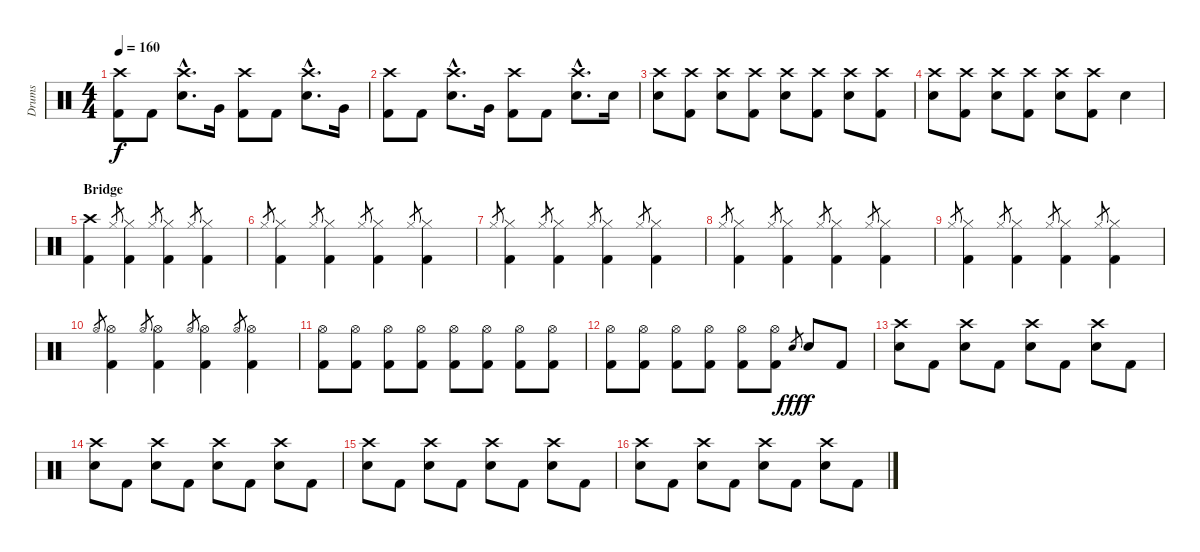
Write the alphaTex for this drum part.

\track ("Drums" "Drums") {instrument percussion}
\staff {score}
\articulation defaults
\ts (4 4)
\tempo 160
\clef neutral
\ks c
("Crash high (hit)" "Kick (hit) 2").8{dy f} "Kick (hit) 2".8 ("Crash high (hit)"{hac} "Electric Snare (hit)"{hac}).8{d} "Very Low Tom (hit)".16 ("Crash high (hit)" "Kick (hit) 2").8 "Kick (hit) 2".8 ("Crash high (hit)"{hac} "Electric Snare (hit)"{hac}).8{d} "Very Low Tom (hit)".16 |
("Crash high (hit)" "Kick (hit) 2").8 "Kick (hit) 2".8 ("Crash high (hit)"{hac} "Electric Snare (hit)"{hac}).8{d} "Very Low Tom (hit)".16 ("Crash high (hit)" "Kick (hit) 2").8 "Kick (hit) 2".8 ("Crash high (hit)"{hac} "Electric Snare (hit)"{hac}).8{d} "Electric Snare (hit)".16 |
("Crash high (hit)" "Electric Snare (hit)").8 ("Crash high (hit)" "Kick (hit) 2").8 ("Crash high (hit)" "Electric Snare (hit)").8 ("Crash high (hit)" "Kick (hit) 2").8 ("Crash high (hit)" "Electric Snare (hit)").8 ("Crash high (hit)" "Kick (hit) 2").8 ("Crash high (hit)" "Electric Snare (hit)").8 ("Crash high (hit)" "Kick (hit) 2").8 |
("Crash high (hit)" "Electric Snare (hit)").8 ("Crash high (hit)" "Kick (hit) 2").8 ("Crash high (hit)" "Electric Snare (hit)").8 ("Crash high (hit)" "Kick (hit) 2").8 ("Crash high (hit)" "Electric Snare (hit)").8 ("Crash high (hit)" "Kick (hit) 2").8 "Electric Snare (hit)".4 |
\section ("" "Bridge")
("Crash high (hit)" "Kick (hit) 2").4 "Hi-Hat (closed)".8{gr} ("Hi-Hat (closed)" "Kick (hit) 2").4 "Hi-Hat (closed)".8{gr} ("Hi-Hat (closed)" "Kick (hit) 2").4 "Hi-Hat (closed)".8{gr} ("Hi-Hat (closed)" "Kick (hit) 2").4 |
"Hi-Hat (closed)".8{gr} ("Hi-Hat (closed)" "Kick (hit) 2").4 "Hi-Hat (closed)".8{gr} ("Hi-Hat (closed)" "Kick (hit) 2").4 "Hi-Hat (closed)".8{gr} ("Hi-Hat (closed)" "Kick (hit) 2").4 "Hi-Hat (closed)".8{gr} ("Hi-Hat (closed)" "Kick (hit) 2").4 |
"Hi-Hat (closed)".8{gr} ("Hi-Hat (closed)" "Kick (hit) 2").4 "Hi-Hat (closed)".8{gr} ("Hi-Hat (closed)" "Kick (hit) 2").4 "Hi-Hat (closed)".8{gr} ("Hi-Hat (closed)" "Kick (hit) 2").4 "Hi-Hat (closed)".8{gr} ("Hi-Hat (closed)" "Kick (hit) 2").4 |
"Hi-Hat (closed)".8{gr} ("Hi-Hat (closed)" "Kick (hit) 2").4 "Hi-Hat (closed)".8{gr} ("Hi-Hat (closed)" "Kick (hit) 2").4 "Hi-Hat (closed)".8{gr} ("Hi-Hat (closed)" "Kick (hit) 2").4 "Hi-Hat (closed)".8{gr} ("Hi-Hat (closed)" "Kick (hit) 2").4 |
"Hi-Hat (closed)".8{gr} ("Hi-Hat (closed)" "Kick (hit) 2").4 "Hi-Hat (closed)".8{gr} ("Hi-Hat (closed)" "Kick (hit) 2").4 "Hi-Hat (closed)".8{gr} ("Hi-Hat (closed)" "Kick (hit) 2").4 "Hi-Hat (closed)".8{gr} ("Hi-Hat (closed)" "Kick (hit) 2").4 |
"Hi-Hat (open)".8{gr} ("Hi-Hat (open)" "Kick (hit) 2").4 "Hi-Hat (open)".8{gr} ("Hi-Hat (open)" "Kick (hit) 2").4 "Hi-Hat (open)".8{gr} ("Hi-Hat (open)" "Kick (hit) 2").4 "Hi-Hat (open)".8{gr} ("Hi-Hat (open)" "Kick (hit) 2").4 |
("Hi-Hat (open)" "Kick (hit) 2").8 ("Hi-Hat (open)" "Kick (hit) 2").8 ("Hi-Hat (open)" "Kick (hit) 2").8 ("Hi-Hat (open)" "Kick (hit) 2").8 ("Hi-Hat (open)" "Kick (hit) 2").8 ("Hi-Hat (open)" "Kick (hit) 2").8 ("Hi-Hat (open)" "Kick (hit) 2").8 ("Hi-Hat (open)" "Kick (hit) 2").8 |
("Hi-Hat (open)" "Kick (hit) 2").8 ("Hi-Hat (open)" "Kick (hit) 2").8 ("Hi-Hat (open)" "Kick (hit) 2").8 ("Hi-Hat (open)" "Kick (hit) 2").8 ("Hi-Hat (open)" "Kick (hit) 2").8 ("Hi-Hat (open)" "Kick (hit) 2").8 "Electric Snare (hit)".8{gr dy fff} "Electric Snare (hit)".8{dy f} "Kick (hit) 2".8 |
("Crash high (hit)" "Electric Snare (hit)").8 "Kick (hit) 2".8 ("Crash high (hit)" "Electric Snare (hit)").8 "Kick (hit) 2".8 ("Crash high (hit)" "Electric Snare (hit)").8 "Kick (hit) 2".8 ("Crash high (hit)" "Electric Snare (hit)").8 "Kick (hit) 2".8 |
("Crash high (hit)" "Electric Snare (hit)").8 "Kick (hit) 2".8 ("Crash high (hit)" "Electric Snare (hit)").8 "Kick (hit) 2".8 ("Crash high (hit)" "Electric Snare (hit)").8 "Kick (hit) 2".8 ("Crash high (hit)" "Electric Snare (hit)").8 "Kick (hit) 2".8 |
("Crash high (hit)" "Electric Snare (hit)").8 "Kick (hit) 2".8 ("Crash high (hit)" "Electric Snare (hit)").8 "Kick (hit) 2".8 ("Crash high (hit)" "Electric Snare (hit)").8 "Kick (hit) 2".8 ("Crash high (hit)" "Electric Snare (hit)").8 "Kick (hit) 2".8 |
("Crash high (hit)" "Electric Snare (hit)").8 "Kick (hit) 2".8 ("Crash high (hit)" "Electric Snare (hit)").8 "Kick (hit) 2".8 ("Crash high (hit)" "Electric Snare (hit)").8 "Kick (hit) 2".8 ("Crash high (hit)" "Electric Snare (hit)").8 "Kick (hit) 2".8
